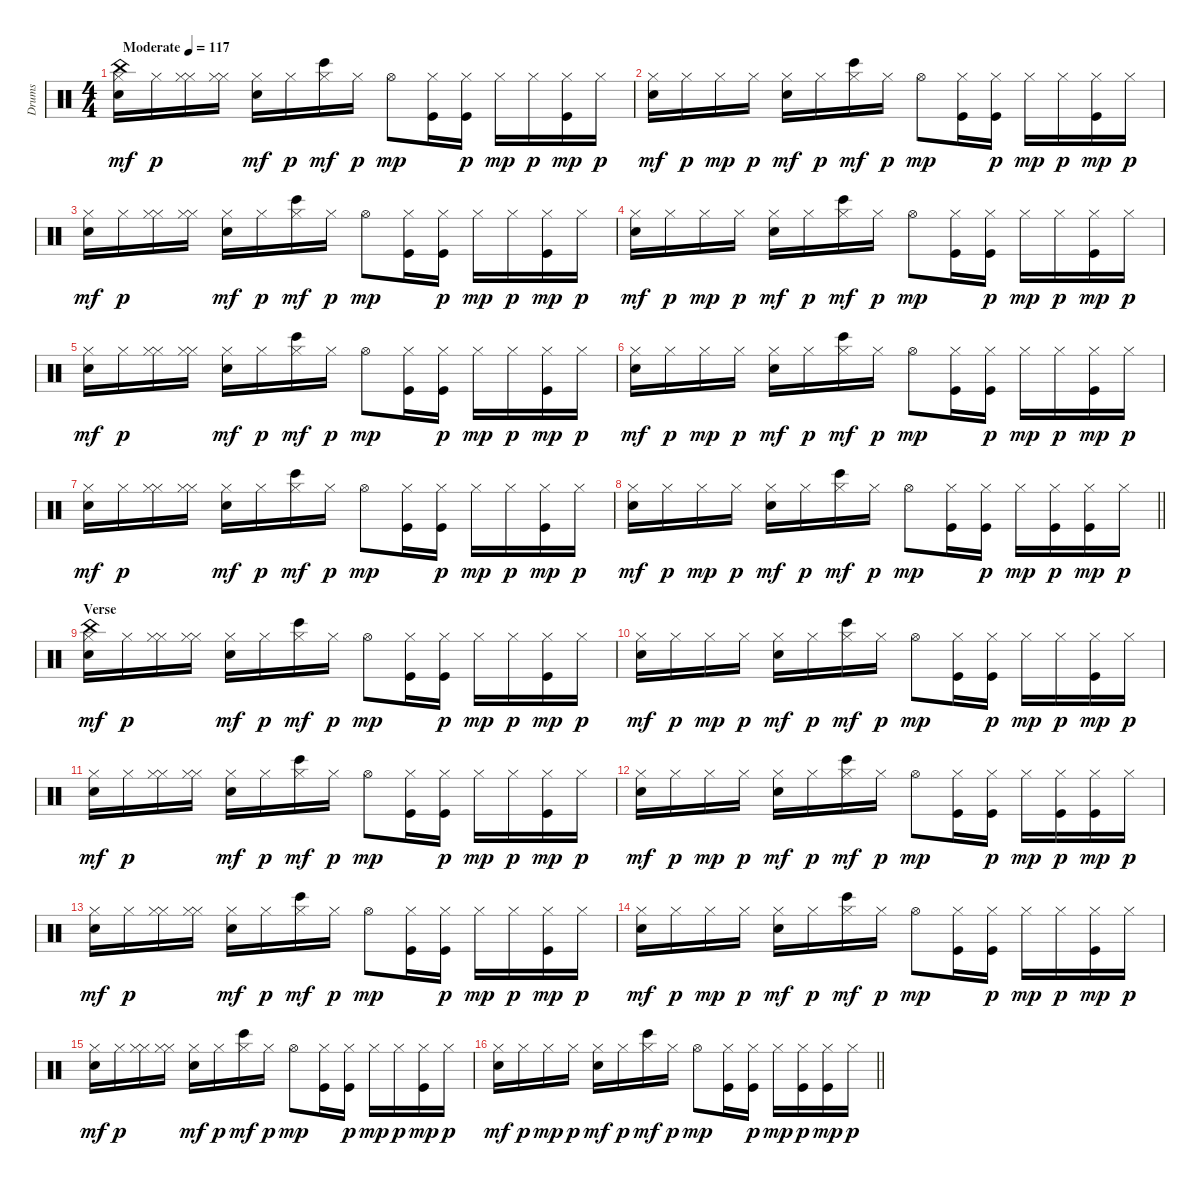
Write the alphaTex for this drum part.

\track ("Drums" "Drums") {instrument percussion}
\staff {score}
\articulation defaults
\ts (4 4)
\tempo (117 "Moderate")
\clef neutral
\ks c
("Hi-Hat (closed)" "China (hit)" "Electric Snare (hit)").16{dy mf} "Hi-Hat (closed)".16{dy p} ("Hi-Hat (closed)" "Hi-Hat (closed)").16 ("Hi-Hat (closed)" "Hi-Hat (closed)").16 ("Hi-Hat (closed)" "Electric Snare (hit)").16{dy mf} "Hi-Hat (closed)".16{dy p} ("Hi-Hat (closed)" "Bongo High (hit)").16{dy mf} "Hi-Hat (closed)".16{dy p} "Hi-Hat (open)".8{dy mp} ("Hi-Hat (closed)" "Kick (hit)").16 ("Hi-Hat (closed)" "Kick (hit)").16{dy p} "Hi-Hat (closed)".16{dy mp} "Hi-Hat (closed)".16{dy p} ("Hi-Hat (closed)" "Kick (hit)").16{dy mp} "Hi-Hat (closed)".16{dy p} |
("Hi-Hat (closed)" "Electric Snare (hit)").16{dy mf} "Hi-Hat (closed)".16{dy p} "Hi-Hat (closed)".16{dy mp} "Hi-Hat (closed)".16{dy p} ("Hi-Hat (closed)" "Electric Snare (hit)").16{dy mf} "Hi-Hat (closed)".16{dy p} ("Hi-Hat (closed)" "Bongo High (hit)").16{dy mf} "Hi-Hat (closed)".16{dy p} "Hi-Hat (open)".8{dy mp} ("Hi-Hat (closed)" "Kick (hit)").16 ("Hi-Hat (closed)" "Kick (hit)").16{dy p} "Hi-Hat (closed)".16{dy mp} "Hi-Hat (closed)".16{dy p} ("Hi-Hat (closed)" "Kick (hit)").16{dy mp} "Hi-Hat (closed)".16{dy p} |
("Hi-Hat (closed)" "Electric Snare (hit)").16{dy mf} "Hi-Hat (closed)".16{dy p} ("Hi-Hat (closed)" "Hi-Hat (closed)").16 ("Hi-Hat (closed)" "Hi-Hat (closed)").16 ("Hi-Hat (closed)" "Electric Snare (hit)").16{dy mf} "Hi-Hat (closed)".16{dy p} ("Hi-Hat (closed)" "Bongo High (hit)").16{dy mf} "Hi-Hat (closed)".16{dy p} "Hi-Hat (open)".8{dy mp} ("Hi-Hat (closed)" "Kick (hit)").16 ("Hi-Hat (closed)" "Kick (hit)").16{dy p} "Hi-Hat (closed)".16{dy mp} "Hi-Hat (closed)".16{dy p} ("Hi-Hat (closed)" "Kick (hit)").16{dy mp} "Hi-Hat (closed)".16{dy p} |
("Hi-Hat (closed)" "Electric Snare (hit)").16{dy mf} "Hi-Hat (closed)".16{dy p} "Hi-Hat (closed)".16{dy mp} "Hi-Hat (closed)".16{dy p} ("Hi-Hat (closed)" "Electric Snare (hit)").16{dy mf} "Hi-Hat (closed)".16{dy p} ("Hi-Hat (closed)" "Bongo High (hit)").16{dy mf} "Hi-Hat (closed)".16{dy p} "Hi-Hat (open)".8{dy mp} ("Hi-Hat (closed)" "Kick (hit)").16 ("Hi-Hat (closed)" "Kick (hit)").16{dy p} "Hi-Hat (closed)".16{dy mp} "Hi-Hat (closed)".16{dy p} ("Hi-Hat (closed)" "Kick (hit)").16{dy mp} "Hi-Hat (closed)".16{dy p} |
("Hi-Hat (closed)" "Electric Snare (hit)").16{dy mf} "Hi-Hat (closed)".16{dy p} ("Hi-Hat (closed)" "Hi-Hat (closed)").16 ("Hi-Hat (closed)" "Hi-Hat (closed)").16 ("Hi-Hat (closed)" "Electric Snare (hit)").16{dy mf} "Hi-Hat (closed)".16{dy p} ("Hi-Hat (closed)" "Bongo High (hit)").16{dy mf} "Hi-Hat (closed)".16{dy p} "Hi-Hat (open)".8{dy mp} ("Hi-Hat (closed)" "Kick (hit)").16 ("Hi-Hat (closed)" "Kick (hit)").16{dy p} "Hi-Hat (closed)".16{dy mp} "Hi-Hat (closed)".16{dy p} ("Hi-Hat (closed)" "Kick (hit)").16{dy mp} "Hi-Hat (closed)".16{dy p} |
("Hi-Hat (closed)" "Electric Snare (hit)").16{dy mf} "Hi-Hat (closed)".16{dy p} "Hi-Hat (closed)".16{dy mp} "Hi-Hat (closed)".16{dy p} ("Hi-Hat (closed)" "Electric Snare (hit)").16{dy mf} "Hi-Hat (closed)".16{dy p} ("Hi-Hat (closed)" "Bongo High (hit)").16{dy mf} "Hi-Hat (closed)".16{dy p} "Hi-Hat (open)".8{dy mp} ("Hi-Hat (closed)" "Kick (hit)").16 ("Hi-Hat (closed)" "Kick (hit)").16{dy p} "Hi-Hat (closed)".16{dy mp} "Hi-Hat (closed)".16{dy p} ("Hi-Hat (closed)" "Kick (hit)").16{dy mp} "Hi-Hat (closed)".16{dy p} |
("Hi-Hat (closed)" "Electric Snare (hit)").16{dy mf} "Hi-Hat (closed)".16{dy p} ("Hi-Hat (closed)" "Hi-Hat (closed)").16 ("Hi-Hat (closed)" "Hi-Hat (closed)").16 ("Hi-Hat (closed)" "Electric Snare (hit)").16{dy mf} "Hi-Hat (closed)".16{dy p} ("Hi-Hat (closed)" "Bongo High (hit)").16{dy mf} "Hi-Hat (closed)".16{dy p} "Hi-Hat (open)".8{dy mp} ("Hi-Hat (closed)" "Kick (hit)").16 ("Hi-Hat (closed)" "Kick (hit)").16{dy p} "Hi-Hat (closed)".16{dy mp} "Hi-Hat (closed)".16{dy p} ("Hi-Hat (closed)" "Kick (hit)").16{dy mp} "Hi-Hat (closed)".16{dy p} |
\barLineRight lightlight
("Hi-Hat (closed)" "Electric Snare (hit)").16{dy mf} "Hi-Hat (closed)".16{dy p} "Hi-Hat (closed)".16{dy mp} "Hi-Hat (closed)".16{dy p} ("Hi-Hat (closed)" "Electric Snare (hit)").16{dy mf} "Hi-Hat (closed)".16{dy p} ("Hi-Hat (closed)" "Bongo High (hit)").16{dy mf} "Hi-Hat (closed)".16{dy p} "Hi-Hat (open)".8{dy mp} ("Hi-Hat (closed)" "Kick (hit)").16 ("Hi-Hat (closed)" "Kick (hit)").16{dy p} "Hi-Hat (closed)".16{dy mp} ("Hi-Hat (closed)" "Kick (hit)").16{dy p} ("Hi-Hat (closed)" "Kick (hit)").16{dy mp} "Hi-Hat (closed)".16{dy p} |
\section ("" "Verse")
("Hi-Hat (closed)" "China (hit)" "Electric Snare (hit)").16{dy mf} "Hi-Hat (closed)".16{dy p} ("Hi-Hat (closed)" "Hi-Hat (closed)").16 ("Hi-Hat (closed)" "Hi-Hat (closed)").16 ("Hi-Hat (closed)" "Electric Snare (hit)").16{dy mf} "Hi-Hat (closed)".16{dy p} ("Hi-Hat (closed)" "Bongo High (hit)").16{dy mf} "Hi-Hat (closed)".16{dy p} "Hi-Hat (open)".8{dy mp} ("Hi-Hat (closed)" "Kick (hit)").16 ("Hi-Hat (closed)" "Kick (hit)").16{dy p} "Hi-Hat (closed)".16{dy mp} "Hi-Hat (closed)".16{dy p} ("Hi-Hat (closed)" "Kick (hit)").16{dy mp} "Hi-Hat (closed)".16{dy p} |
("Hi-Hat (closed)" "Electric Snare (hit)").16{dy mf} "Hi-Hat (closed)".16{dy p} "Hi-Hat (closed)".16{dy mp} "Hi-Hat (closed)".16{dy p} ("Hi-Hat (closed)" "Electric Snare (hit)").16{dy mf} "Hi-Hat (closed)".16{dy p} ("Hi-Hat (closed)" "Bongo High (hit)").16{dy mf} "Hi-Hat (closed)".16{dy p} "Hi-Hat (open)".8{dy mp} ("Hi-Hat (closed)" "Kick (hit)").16 ("Hi-Hat (closed)" "Kick (hit)").16{dy p} "Hi-Hat (closed)".16{dy mp} "Hi-Hat (closed)".16{dy p} ("Hi-Hat (closed)" "Kick (hit)").16{dy mp} "Hi-Hat (closed)".16{dy p} |
("Hi-Hat (closed)" "Electric Snare (hit)").16{dy mf} "Hi-Hat (closed)".16{dy p} ("Hi-Hat (closed)" "Hi-Hat (closed)").16 ("Hi-Hat (closed)" "Hi-Hat (closed)").16 ("Hi-Hat (closed)" "Electric Snare (hit)").16{dy mf} "Hi-Hat (closed)".16{dy p} ("Hi-Hat (closed)" "Bongo High (hit)").16{dy mf} "Hi-Hat (closed)".16{dy p} "Hi-Hat (open)".8{dy mp} ("Hi-Hat (closed)" "Kick (hit)").16 ("Hi-Hat (closed)" "Kick (hit)").16{dy p} "Hi-Hat (closed)".16{dy mp} "Hi-Hat (closed)".16{dy p} ("Hi-Hat (closed)" "Kick (hit)").16{dy mp} "Hi-Hat (closed)".16{dy p} |
("Hi-Hat (closed)" "Electric Snare (hit)").16{dy mf} "Hi-Hat (closed)".16{dy p} "Hi-Hat (closed)".16{dy mp} "Hi-Hat (closed)".16{dy p} ("Hi-Hat (closed)" "Electric Snare (hit)").16{dy mf} "Hi-Hat (closed)".16{dy p} ("Hi-Hat (closed)" "Bongo High (hit)").16{dy mf} "Hi-Hat (closed)".16{dy p} "Hi-Hat (open)".8{dy mp} ("Hi-Hat (closed)" "Kick (hit)").16 ("Hi-Hat (closed)" "Kick (hit)").16{dy p} "Hi-Hat (closed)".16{dy mp} ("Hi-Hat (closed)" "Kick (hit)").16{dy p} ("Hi-Hat (closed)" "Kick (hit)").16{dy mp} "Hi-Hat (closed)".16{dy p} |
("Hi-Hat (closed)" "Electric Snare (hit)").16{dy mf} "Hi-Hat (closed)".16{dy p} ("Hi-Hat (closed)" "Hi-Hat (closed)").16 ("Hi-Hat (closed)" "Hi-Hat (closed)").16 ("Hi-Hat (closed)" "Electric Snare (hit)").16{dy mf} "Hi-Hat (closed)".16{dy p} ("Hi-Hat (closed)" "Bongo High (hit)").16{dy mf} "Hi-Hat (closed)".16{dy p} "Hi-Hat (open)".8{dy mp} ("Hi-Hat (closed)" "Kick (hit)").16 ("Hi-Hat (closed)" "Kick (hit)").16{dy p} "Hi-Hat (closed)".16{dy mp} "Hi-Hat (closed)".16{dy p} ("Hi-Hat (closed)" "Kick (hit)").16{dy mp} "Hi-Hat (closed)".16{dy p} |
("Hi-Hat (closed)" "Electric Snare (hit)").16{dy mf} "Hi-Hat (closed)".16{dy p} "Hi-Hat (closed)".16{dy mp} "Hi-Hat (closed)".16{dy p} ("Hi-Hat (closed)" "Electric Snare (hit)").16{dy mf} "Hi-Hat (closed)".16{dy p} ("Hi-Hat (closed)" "Bongo High (hit)").16{dy mf} "Hi-Hat (closed)".16{dy p} "Hi-Hat (open)".8{dy mp} ("Hi-Hat (closed)" "Kick (hit)").16 ("Hi-Hat (closed)" "Kick (hit)").16{dy p} "Hi-Hat (closed)".16{dy mp} "Hi-Hat (closed)".16{dy p} ("Hi-Hat (closed)" "Kick (hit)").16{dy mp} "Hi-Hat (closed)".16{dy p} |
("Hi-Hat (closed)" "Electric Snare (hit)").16{dy mf} "Hi-Hat (closed)".16{dy p} ("Hi-Hat (closed)" "Hi-Hat (closed)").16 ("Hi-Hat (closed)" "Hi-Hat (closed)").16 ("Hi-Hat (closed)" "Electric Snare (hit)").16{dy mf} "Hi-Hat (closed)".16{dy p} ("Hi-Hat (closed)" "Bongo High (hit)").16{dy mf} "Hi-Hat (closed)".16{dy p} "Hi-Hat (open)".8{dy mp} ("Hi-Hat (closed)" "Kick (hit)").16 ("Hi-Hat (closed)" "Kick (hit)").16{dy p} "Hi-Hat (closed)".16{dy mp} "Hi-Hat (closed)".16{dy p} ("Hi-Hat (closed)" "Kick (hit)").16{dy mp} "Hi-Hat (closed)".16{dy p} |
\barLineRight lightlight
("Hi-Hat (closed)" "Electric Snare (hit)").16{dy mf} "Hi-Hat (closed)".16{dy p} "Hi-Hat (closed)".16{dy mp} "Hi-Hat (closed)".16{dy p} ("Hi-Hat (closed)" "Electric Snare (hit)").16{dy mf} "Hi-Hat (closed)".16{dy p} ("Hi-Hat (closed)" "Bongo High (hit)").16{dy mf} "Hi-Hat (closed)".16{dy p} "Hi-Hat (open)".8{dy mp} ("Hi-Hat (closed)" "Kick (hit)").16 ("Hi-Hat (closed)" "Kick (hit)").16{dy p} "Hi-Hat (closed)".16{dy mp} ("Hi-Hat (closed)" "Kick (hit)").16{dy p} ("Hi-Hat (closed)" "Kick (hit)").16{dy mp} "Hi-Hat (closed)".16{dy p}
